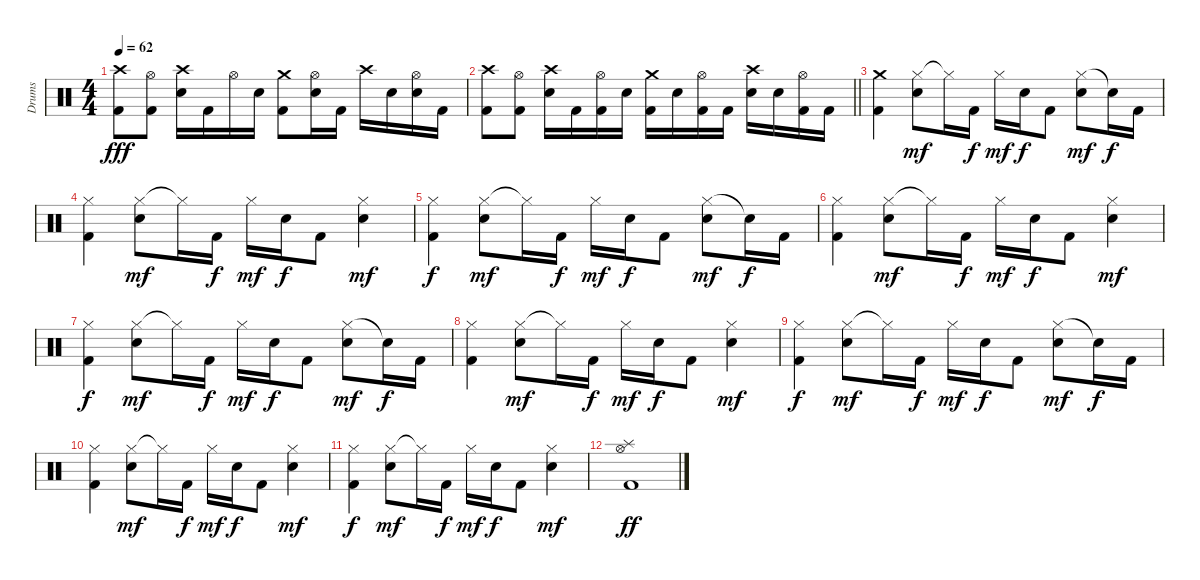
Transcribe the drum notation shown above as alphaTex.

\track ("Drums" "Drums") {instrument percussion}
\staff {score}
\articulation defaults
\ts (4 4)
\tempo 62
\clef neutral
\ks c
("Crash high (hit)" "Kick (hit) 2").8{dy fff} ("Hi-Hat (open)" "Kick (hit) 2").8 ("Crash high (hit)" "Snare (hit) 2").16 "Kick (hit) 2".16 "Hi-Hat (open)".16 "Snare (hit) 2".16 ("Crash medium (hit)" "Kick (hit) 2").8 ("Hi-Hat (open)" "Snare (hit) 2").16 "Kick (hit) 2".16 "Crash high (hit)".16 "Snare (hit) 2".16 ("Hi-Hat (open)" "Snare (hit) 2").16 "Kick (hit) 2".16 |
\barLineRight lightlight
("Crash high (hit)" "Kick (hit) 2").8 ("Hi-Hat (open)" "Kick (hit) 2").8 ("Crash high (hit)" "Snare (hit) 2").16 "Kick (hit) 2".16 ("Hi-Hat (open)" "Kick (hit) 2").16 "Snare (hit) 2".16 ("Crash medium (hit)" "Kick (hit) 2").16 "Snare (hit) 2".16 ("Hi-Hat (open)" "Kick (hit) 2").16 "Kick (hit) 2".16 ("Crash high (hit)" "Snare (hit) 2").16 "Snare (hit) 2".16 ("Hi-Hat (open)" "Kick (hit) 2").16 "Kick (hit) 2".16 |
\section ("" "")
("Crash medium (hit)" "Kick (hit) 2").4 ("Hi-Hat (closed)" "Snare (hit) 2").8{dy mf} "Hi-Hat (closed)"{t}.16 "Kick (hit) 2".16{dy f} "Hi-Hat (closed)".16{dy mf} "Snare (hit) 2".16{dy f} "Kick (hit) 2".8 ("Hi-Hat (closed)" "Snare (hit) 2").8{dy mf} "Snare (hit)"{t}.16{dy f} "Kick (hit) 2".16 |
("Hi-Hat (closed)" "Kick (hit) 2").4 ("Hi-Hat (closed)" "Snare (hit) 2").8{dy mf} "Hi-Hat (closed)"{t}.16 "Kick (hit) 2".16{dy f} "Hi-Hat (closed)".16{dy mf} "Snare (hit) 2".16{dy f} "Kick (hit) 2".8 ("Hi-Hat (closed)" "Snare (hit) 2").4{dy mf} |
("Hi-Hat (closed)" "Kick (hit) 2").4{dy f} ("Hi-Hat (closed)" "Snare (hit) 2").8{dy mf} "Hi-Hat (closed)"{t}.16 "Kick (hit) 2".16{dy f} "Hi-Hat (closed)".16{dy mf} "Snare (hit) 2".16{dy f} "Kick (hit) 2".8 ("Hi-Hat (closed)" "Snare (hit) 2").8{dy mf} "Snare (hit)"{t}.16{dy f} "Kick (hit) 2".16 |
("Hi-Hat (closed)" "Kick (hit) 2").4 ("Hi-Hat (closed)" "Snare (hit) 2").8{dy mf} "Hi-Hat (closed)"{t}.16 "Kick (hit) 2".16{dy f} "Hi-Hat (closed)".16{dy mf} "Snare (hit) 2".16{dy f} "Kick (hit) 2".8 ("Hi-Hat (closed)" "Snare (hit) 2").4{dy mf} |
("Hi-Hat (closed)" "Kick (hit) 2").4{dy f} ("Hi-Hat (closed)" "Snare (hit) 2").8{dy mf} "Hi-Hat (closed)"{t}.16 "Kick (hit) 2".16{dy f} "Hi-Hat (closed)".16{dy mf} "Snare (hit) 2".16{dy f} "Kick (hit) 2".8 ("Hi-Hat (closed)" "Snare (hit) 2").8{dy mf} "Snare (hit)"{t}.16{dy f} "Kick (hit) 2".16 |
("Hi-Hat (closed)" "Kick (hit) 2").4 ("Hi-Hat (closed)" "Snare (hit) 2").8{dy mf} "Hi-Hat (closed)"{t}.16 "Kick (hit) 2".16{dy f} "Hi-Hat (closed)".16{dy mf} "Snare (hit) 2".16{dy f} "Kick (hit) 2".8 ("Hi-Hat (closed)" "Snare (hit) 2").4{dy mf} |
("Hi-Hat (closed)" "Kick (hit) 2").4{dy f} ("Hi-Hat (closed)" "Snare (hit) 2").8{dy mf} "Hi-Hat (closed)"{t}.16 "Kick (hit) 2".16{dy f} "Hi-Hat (closed)".16{dy mf} "Snare (hit) 2".16{dy f} "Kick (hit) 2".8 ("Hi-Hat (closed)" "Snare (hit) 2").8{dy mf} "Snare (hit)"{t}.16{dy f} "Kick (hit) 2".16 |
("Hi-Hat (closed)" "Kick (hit) 2").4 ("Hi-Hat (closed)" "Snare (hit) 2").8{dy mf} "Hi-Hat (closed)"{t}.16 "Kick (hit) 2".16{dy f} "Hi-Hat (closed)".16{dy mf} "Snare (hit) 2".16{dy f} "Kick (hit) 2".8 ("Hi-Hat (closed)" "Snare (hit) 2").4{dy mf} |
("Hi-Hat (closed)" "Kick (hit) 2").4{dy f} ("Hi-Hat (closed)" "Snare (hit) 2").8{dy mf} "Hi-Hat (closed)"{t}.16 "Kick (hit) 2".16{dy f} "Hi-Hat (closed)".16{dy mf} "Snare (hit) 2".16{dy f} "Kick (hit) 2".8 ("Hi-Hat (closed)" "Snare (hit) 2").4{dy mf} |
("Splash (hit)" "Hi-Hat (open)" "Kick (hit) 2").1{dy ff}
